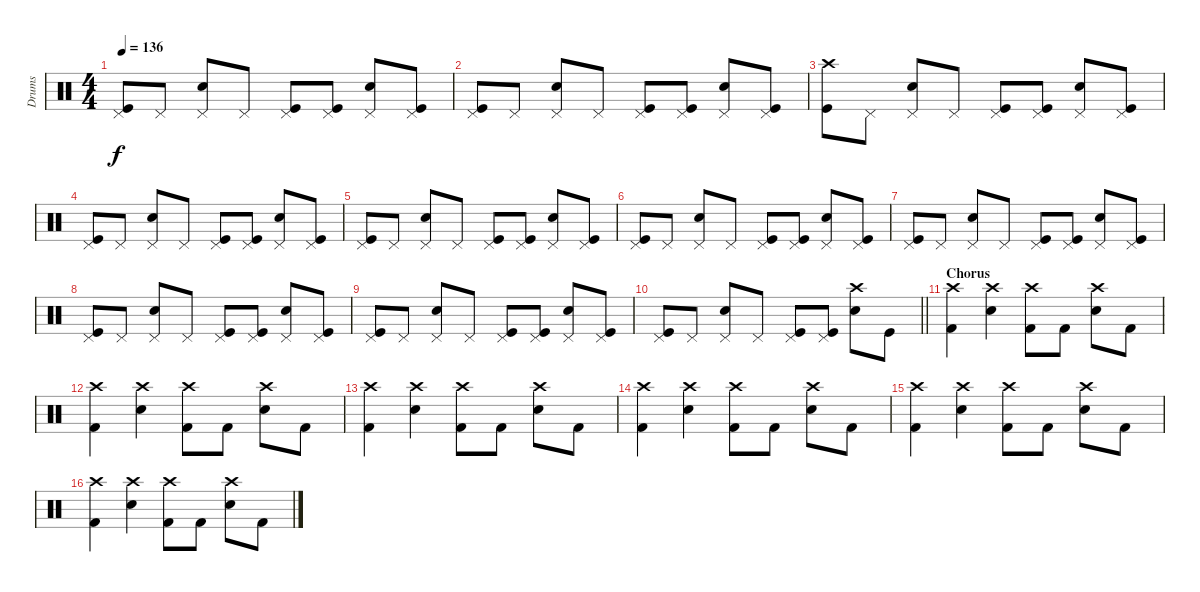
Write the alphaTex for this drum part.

\track ("Drums" "Drums") {instrument percussion}
\staff {score}
\articulation defaults
\ts (4 4)
\tempo 136
\clef neutral
\ks c
("Pedal Hi-Hat (hit)" "Kick (hit)").8{dy f} "Pedal Hi-Hat (hit)".8 ("Pedal Hi-Hat (hit)" "Electric Snare (hit)").8 "Pedal Hi-Hat (hit)".8 ("Pedal Hi-Hat (hit)" "Kick (hit)").8 ("Pedal Hi-Hat (hit)" "Kick (hit)").8 ("Pedal Hi-Hat (hit)" "Electric Snare (hit)").8 ("Pedal Hi-Hat (hit)" "Kick (hit)").8 |
("Pedal Hi-Hat (hit)" "Kick (hit)").8 "Pedal Hi-Hat (hit)".8 ("Pedal Hi-Hat (hit)" "Electric Snare (hit)").8 "Pedal Hi-Hat (hit)".8 ("Pedal Hi-Hat (hit)" "Kick (hit)").8 ("Pedal Hi-Hat (hit)" "Kick (hit)").8 ("Pedal Hi-Hat (hit)" "Electric Snare (hit)").8 ("Pedal Hi-Hat (hit)" "Kick (hit)").8 |
("Crash high (hit)" "Kick (hit)").8 "Pedal Hi-Hat (hit)".8 ("Pedal Hi-Hat (hit)" "Electric Snare (hit)").8 "Pedal Hi-Hat (hit)".8 ("Pedal Hi-Hat (hit)" "Kick (hit)").8 ("Pedal Hi-Hat (hit)" "Kick (hit)").8 ("Pedal Hi-Hat (hit)" "Electric Snare (hit)").8 ("Pedal Hi-Hat (hit)" "Kick (hit)").8 |
("Pedal Hi-Hat (hit)" "Kick (hit)").8 "Pedal Hi-Hat (hit)".8 ("Pedal Hi-Hat (hit)" "Electric Snare (hit)").8 "Pedal Hi-Hat (hit)".8 ("Pedal Hi-Hat (hit)" "Kick (hit)").8 ("Pedal Hi-Hat (hit)" "Kick (hit)").8 ("Pedal Hi-Hat (hit)" "Electric Snare (hit)").8 ("Pedal Hi-Hat (hit)" "Kick (hit)").8 |
("Pedal Hi-Hat (hit)" "Kick (hit)").8 "Pedal Hi-Hat (hit)".8 ("Pedal Hi-Hat (hit)" "Electric Snare (hit)").8 "Pedal Hi-Hat (hit)".8 ("Pedal Hi-Hat (hit)" "Kick (hit)").8 ("Pedal Hi-Hat (hit)" "Kick (hit)").8 ("Pedal Hi-Hat (hit)" "Electric Snare (hit)").8 ("Pedal Hi-Hat (hit)" "Kick (hit)").8 |
("Pedal Hi-Hat (hit)" "Kick (hit)").8 "Pedal Hi-Hat (hit)".8 ("Pedal Hi-Hat (hit)" "Electric Snare (hit)").8 "Pedal Hi-Hat (hit)".8 ("Pedal Hi-Hat (hit)" "Kick (hit)").8 ("Pedal Hi-Hat (hit)" "Kick (hit)").8 ("Pedal Hi-Hat (hit)" "Electric Snare (hit)").8 ("Pedal Hi-Hat (hit)" "Kick (hit)").8 |
("Pedal Hi-Hat (hit)" "Kick (hit)").8 "Pedal Hi-Hat (hit)".8 ("Pedal Hi-Hat (hit)" "Electric Snare (hit)").8 "Pedal Hi-Hat (hit)".8 ("Pedal Hi-Hat (hit)" "Kick (hit)").8 ("Pedal Hi-Hat (hit)" "Kick (hit)").8 ("Pedal Hi-Hat (hit)" "Electric Snare (hit)").8 ("Pedal Hi-Hat (hit)" "Kick (hit)").8 |
("Pedal Hi-Hat (hit)" "Kick (hit)").8 "Pedal Hi-Hat (hit)".8 ("Pedal Hi-Hat (hit)" "Electric Snare (hit)").8 "Pedal Hi-Hat (hit)".8 ("Pedal Hi-Hat (hit)" "Kick (hit)").8 ("Pedal Hi-Hat (hit)" "Kick (hit)").8 ("Pedal Hi-Hat (hit)" "Electric Snare (hit)").8 ("Pedal Hi-Hat (hit)" "Kick (hit)").8 |
("Pedal Hi-Hat (hit)" "Kick (hit)").8 "Pedal Hi-Hat (hit)".8 ("Pedal Hi-Hat (hit)" "Electric Snare (hit)").8 "Pedal Hi-Hat (hit)".8 ("Pedal Hi-Hat (hit)" "Kick (hit)").8 ("Pedal Hi-Hat (hit)" "Kick (hit)").8 ("Pedal Hi-Hat (hit)" "Electric Snare (hit)").8 ("Pedal Hi-Hat (hit)" "Kick (hit)").8 |
\barLineRight lightlight
("Pedal Hi-Hat (hit)" "Kick (hit)").8 "Pedal Hi-Hat (hit)".8 ("Pedal Hi-Hat (hit)" "Electric Snare (hit)").8 "Pedal Hi-Hat (hit)".8 ("Pedal Hi-Hat (hit)" "Kick (hit)").8 ("Pedal Hi-Hat (hit)" "Kick (hit)").8 ("Crash high (hit)" "Electric Snare (hit)").8 "Kick (hit)".8 |
\section ("" "Chorus")
("Crash high (hit)" "Kick (hit) 2").4 ("Crash high (hit)" "Electric Snare (hit)").4 ("Crash high (hit)" "Kick (hit) 2").8 "Kick (hit) 2".8 ("Crash high (hit)" "Electric Snare (hit)").8 "Kick (hit) 2".8 |
("Crash high (hit)" "Kick (hit) 2").4 ("Crash high (hit)" "Electric Snare (hit)").4 ("Crash high (hit)" "Kick (hit) 2").8 "Kick (hit) 2".8 ("Crash high (hit)" "Electric Snare (hit)").8 "Kick (hit) 2".8 |
("Crash high (hit)" "Kick (hit) 2").4 ("Crash high (hit)" "Electric Snare (hit)").4 ("Crash high (hit)" "Kick (hit) 2").8 "Kick (hit) 2".8 ("Crash high (hit)" "Electric Snare (hit)").8 "Kick (hit) 2".8 |
("Crash high (hit)" "Kick (hit) 2").4 ("Crash high (hit)" "Electric Snare (hit)").4 ("Crash high (hit)" "Kick (hit) 2").8 "Kick (hit) 2".8 ("Crash high (hit)" "Electric Snare (hit)").8 "Kick (hit) 2".8 |
("Crash high (hit)" "Kick (hit) 2").4 ("Crash high (hit)" "Electric Snare (hit)").4 ("Crash high (hit)" "Kick (hit) 2").8 "Kick (hit) 2".8 ("Crash high (hit)" "Electric Snare (hit)").8 "Kick (hit) 2".8 |
("Crash high (hit)" "Kick (hit) 2").4 ("Crash high (hit)" "Electric Snare (hit)").4 ("Crash high (hit)" "Kick (hit) 2").8 "Kick (hit) 2".8 ("Crash high (hit)" "Electric Snare (hit)").8 "Kick (hit) 2".8
